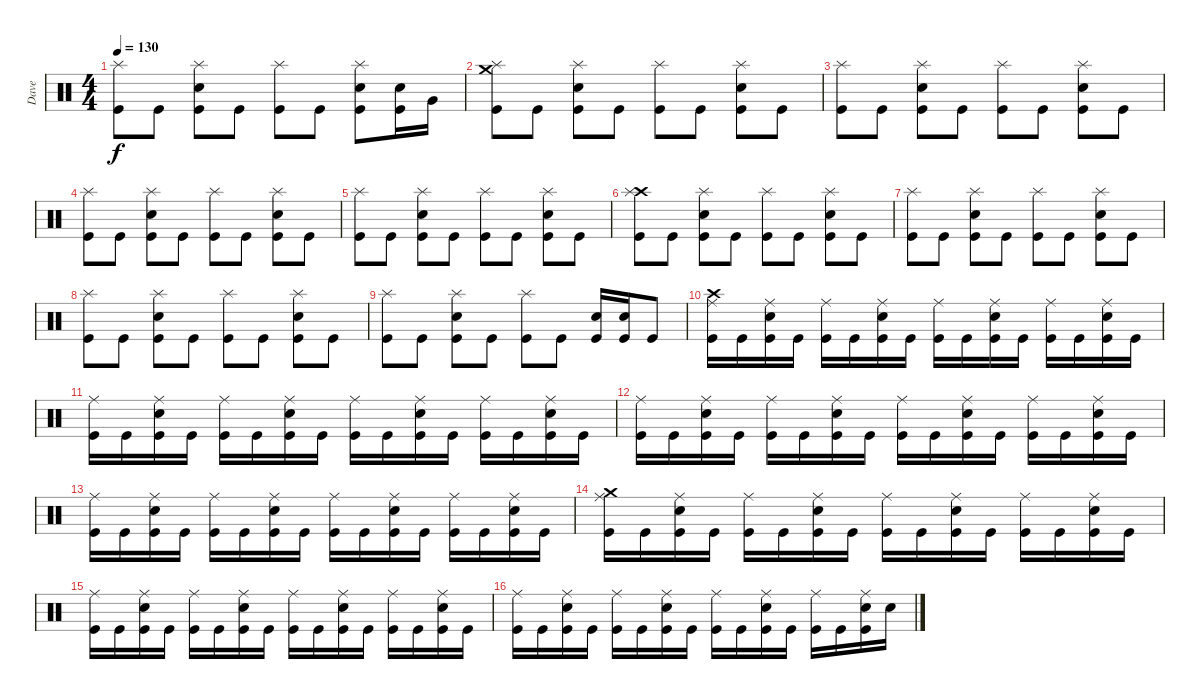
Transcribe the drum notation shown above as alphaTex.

\track ("Dave" "Dave") {instrument percussion}
\staff {score}
\articulation defaults
\ts (4 4)
\tempo 130
\clef neutral
\ks c
("Splash (hit)" "Kick (hit)").8{dy f} "Kick (hit)".8 ("Splash (hit)" "Electric Snare (hit)" "Kick (hit)").8 "Kick (hit)".8 ("Splash (hit)" "Kick (hit)").8 "Kick (hit)".8 ("Splash (hit)" "Electric Snare (hit)" "Kick (hit)").8 ("Electric Snare (hit)" "Kick (hit)").16 "Very Low Tom (hit)".16 |
\section ("" "")
("Crash medium (hit)" "Splash (hit)" "Kick (hit)").8 "Kick (hit)".8 ("Splash (hit)" "Electric Snare (hit)" "Kick (hit)").8 "Kick (hit)".8 ("Splash (hit)" "Kick (hit)").8 "Kick (hit)".8 ("Splash (hit)" "Electric Snare (hit)" "Kick (hit)").8 "Kick (hit)".8 |
("Splash (hit)" "Kick (hit)").8 "Kick (hit)".8 ("Splash (hit)" "Electric Snare (hit)" "Kick (hit)").8 "Kick (hit)".8 ("Splash (hit)" "Kick (hit)").8 "Kick (hit)".8 ("Splash (hit)" "Electric Snare (hit)" "Kick (hit)").8 "Kick (hit)".8 |
("Splash (hit)" "Kick (hit)").8 "Kick (hit)".8 ("Splash (hit)" "Electric Snare (hit)" "Kick (hit)").8 "Kick (hit)".8 ("Splash (hit)" "Kick (hit)").8 "Kick (hit)".8 ("Splash (hit)" "Electric Snare (hit)" "Kick (hit)").8 "Kick (hit)".8 |
("Splash (hit)" "Kick (hit)").8 "Kick (hit)".8 ("Splash (hit)" "Electric Snare (hit)" "Kick (hit)").8 "Kick (hit)".8 ("Splash (hit)" "Kick (hit)").8 "Kick (hit)".8 ("Splash (hit)" "Electric Snare (hit)" "Kick (hit)").8 "Kick (hit)".8 |
("Crash high (hit)" "Splash (hit)" "Kick (hit)").8 "Kick (hit)".8 ("Splash (hit)" "Electric Snare (hit)" "Kick (hit)").8 "Kick (hit)".8 ("Splash (hit)" "Kick (hit)").8 "Kick (hit)".8 ("Splash (hit)" "Electric Snare (hit)" "Kick (hit)").8 "Kick (hit)".8 |
("Splash (hit)" "Kick (hit)").8 "Kick (hit)".8 ("Splash (hit)" "Electric Snare (hit)" "Kick (hit)").8 "Kick (hit)".8 ("Splash (hit)" "Kick (hit)").8 "Kick (hit)".8 ("Splash (hit)" "Electric Snare (hit)" "Kick (hit)").8 "Kick (hit)".8 |
("Splash (hit)" "Kick (hit)").8 "Kick (hit)".8 ("Splash (hit)" "Electric Snare (hit)" "Kick (hit)").8 "Kick (hit)".8 ("Splash (hit)" "Kick (hit)").8 "Kick (hit)".8 ("Splash (hit)" "Electric Snare (hit)" "Kick (hit)").8 "Kick (hit)".8 |
("Splash (hit)" "Kick (hit)").8 "Kick (hit)".8 ("Splash (hit)" "Electric Snare (hit)" "Kick (hit)").8 "Kick (hit)".8 ("Splash (hit)" "Kick (hit)").8 "Kick (hit)".8 ("Electric Snare (hit)" "Kick (hit)").16 ("Electric Snare (hit)" "Kick (hit)").16 "Kick (hit)".8 |
\section ("" "")
("Crash high (hit)" "Ride (middle)" "Kick (hit)").16 "Kick (hit)".16 ("Ride (middle)" "Electric Snare (hit)" "Kick (hit)").16 "Kick (hit)".16 ("Ride (middle)" "Kick (hit)").16 "Kick (hit)".16 ("Ride (middle)" "Electric Snare (hit)" "Kick (hit)").16 "Kick (hit)".16 ("Ride (middle)" "Kick (hit)").16 "Kick (hit)".16 ("Ride (middle)" "Electric Snare (hit)" "Kick (hit)").16 "Kick (hit)".16 ("Ride (middle)" "Kick (hit)").16 "Kick (hit)".16 ("Ride (middle)" "Electric Snare (hit)" "Kick (hit)").16 "Kick (hit)".16 |
("Ride (middle)" "Kick (hit)").16 "Kick (hit)".16 ("Ride (middle)" "Electric Snare (hit)" "Kick (hit)").16 "Kick (hit)".16 ("Ride (middle)" "Kick (hit)").16 "Kick (hit)".16 ("Ride (middle)" "Electric Snare (hit)" "Kick (hit)").16 "Kick (hit)".16 ("Ride (middle)" "Kick (hit)").16 "Kick (hit)".16 ("Ride (middle)" "Electric Snare (hit)" "Kick (hit)").16 "Kick (hit)".16 ("Ride (middle)" "Kick (hit)").16 "Kick (hit)".16 ("Ride (middle)" "Electric Snare (hit)" "Kick (hit)").16 "Kick (hit)".16 |
("Ride (middle)" "Kick (hit)").16 "Kick (hit)".16 ("Ride (middle)" "Electric Snare (hit)" "Kick (hit)").16 "Kick (hit)".16 ("Ride (middle)" "Kick (hit)").16 "Kick (hit)".16 ("Ride (middle)" "Electric Snare (hit)" "Kick (hit)").16 "Kick (hit)".16 ("Ride (middle)" "Kick (hit)").16 "Kick (hit)".16 ("Ride (middle)" "Electric Snare (hit)" "Kick (hit)").16 "Kick (hit)".16 ("Ride (middle)" "Kick (hit)").16 "Kick (hit)".16 ("Ride (middle)" "Electric Snare (hit)" "Kick (hit)").16 "Kick (hit)".16 |
("Ride (middle)" "Kick (hit)").16 "Kick (hit)".16 ("Ride (middle)" "Electric Snare (hit)" "Kick (hit)").16 "Kick (hit)".16 ("Ride (middle)" "Kick (hit)").16 "Kick (hit)".16 ("Ride (middle)" "Electric Snare (hit)" "Kick (hit)").16 "Kick (hit)".16 ("Ride (middle)" "Kick (hit)").16 "Kick (hit)".16 ("Ride (middle)" "Electric Snare (hit)" "Kick (hit)").16 "Kick (hit)".16 ("Ride (middle)" "Kick (hit)").16 "Kick (hit)".16 ("Ride (middle)" "Electric Snare (hit)" "Kick (hit)").16 "Kick (hit)".16 |
("Crash medium (hit)" "Ride (middle)" "Kick (hit)").16 "Kick (hit)".16 ("Ride (middle)" "Electric Snare (hit)" "Kick (hit)").16 "Kick (hit)".16 ("Ride (middle)" "Kick (hit)").16 "Kick (hit)".16 ("Ride (middle)" "Electric Snare (hit)" "Kick (hit)").16 "Kick (hit)".16 ("Ride (middle)" "Kick (hit)").16 "Kick (hit)".16 ("Ride (middle)" "Electric Snare (hit)" "Kick (hit)").16 "Kick (hit)".16 ("Ride (middle)" "Kick (hit)").16 "Kick (hit)".16 ("Ride (middle)" "Electric Snare (hit)" "Kick (hit)").16 "Kick (hit)".16 |
("Ride (middle)" "Kick (hit)").16 "Kick (hit)".16 ("Ride (middle)" "Electric Snare (hit)" "Kick (hit)").16 "Kick (hit)".16 ("Ride (middle)" "Kick (hit)").16 "Kick (hit)".16 ("Ride (middle)" "Electric Snare (hit)" "Kick (hit)").16 "Kick (hit)".16 ("Ride (middle)" "Kick (hit)").16 "Kick (hit)".16 ("Ride (middle)" "Electric Snare (hit)" "Kick (hit)").16 "Kick (hit)".16 ("Ride (middle)" "Kick (hit)").16 "Kick (hit)".16 ("Ride (middle)" "Electric Snare (hit)" "Kick (hit)").16 "Kick (hit)".16 |
("Ride (middle)" "Kick (hit)").16 "Kick (hit)".16 ("Ride (middle)" "Electric Snare (hit)" "Kick (hit)").16 "Kick (hit)".16 ("Ride (middle)" "Kick (hit)").16 "Kick (hit)".16 ("Ride (middle)" "Electric Snare (hit)" "Kick (hit)").16 "Kick (hit)".16 ("Ride (middle)" "Kick (hit)").16 "Kick (hit)".16 ("Ride (middle)" "Electric Snare (hit)" "Kick (hit)").16 "Kick (hit)".16 ("Ride (middle)" "Kick (hit)").16 "Kick (hit)".16 ("Ride (middle)" "Electric Snare (hit)" "Kick (hit)").16 "Snare (hit)".16
